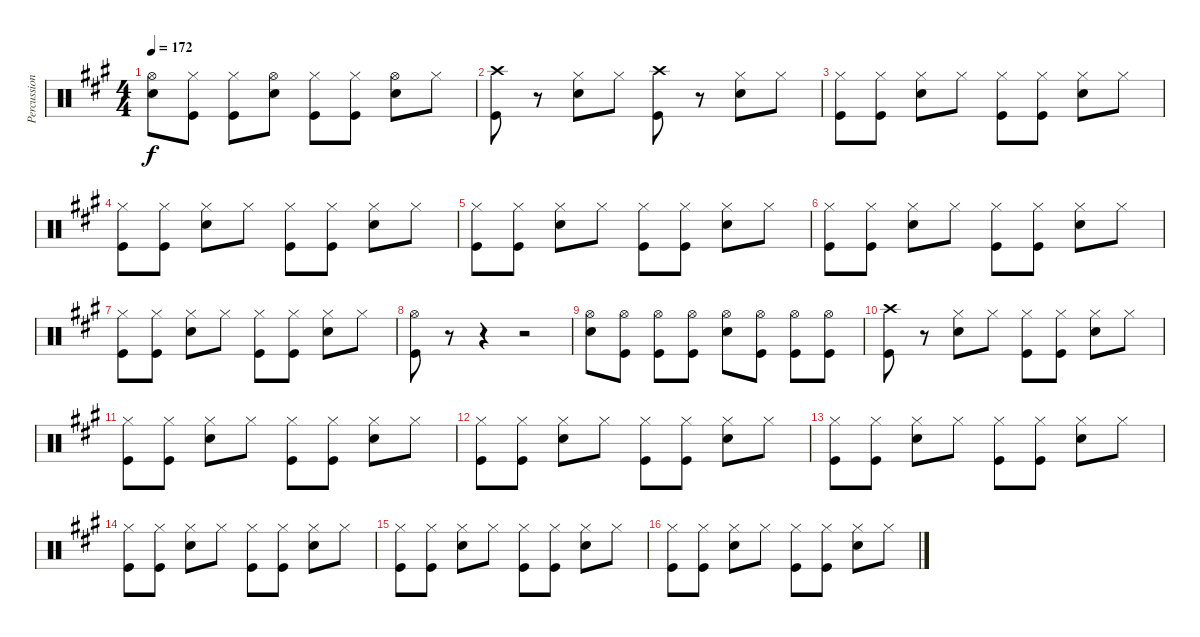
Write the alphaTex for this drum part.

\track ("Percussion" "Percussion") {instrument percussion}
\staff {score}
\articulation defaults
\ts (4 4)
\tempo 172
\clef neutral
\ks a
("Hi-Hat (open)" "Snare (hit) 2").8{dy f} ("Hi-Hat (closed)" "Kick (hit)").8 ("Hi-Hat (closed)" "Kick (hit)").8 ("Hi-Hat (open)" "Snare (hit) 2").8 ("Hi-Hat (closed)" "Kick (hit)").8 ("Hi-Hat (closed)" "Kick (hit)").8 ("Hi-Hat (open)" "Snare (hit) 2").8 "Hi-Hat (closed)".8 |
("Crash high (hit)" "Kick (hit)").8 r.8 ("Hi-Hat (closed)" "Snare (hit) 2").8 "Hi-Hat (closed)".8 ("Crash high (hit)" "Kick (hit)").8 r.8 ("Hi-Hat (closed)" "Snare (hit) 2").8 "Hi-Hat (closed)".8 |
("Hi-Hat (closed)" "Kick (hit)").8 ("Hi-Hat (closed)" "Kick (hit)").8 ("Hi-Hat (closed)" "Snare (hit) 2").8 "Hi-Hat (closed)".8 ("Hi-Hat (closed)" "Kick (hit)").8 ("Hi-Hat (closed)" "Kick (hit)").8 ("Hi-Hat (closed)" "Snare (hit) 2").8 "Hi-Hat (closed)".8 |
("Hi-Hat (closed)" "Kick (hit)").8 ("Hi-Hat (closed)" "Kick (hit)").8 ("Hi-Hat (closed)" "Snare (hit) 2").8 "Hi-Hat (closed)".8 ("Hi-Hat (closed)" "Kick (hit)").8 ("Hi-Hat (closed)" "Kick (hit)").8 ("Hi-Hat (closed)" "Snare (hit) 2").8 "Hi-Hat (closed)".8 |
("Hi-Hat (closed)" "Kick (hit)").8 ("Hi-Hat (closed)" "Kick (hit)").8 ("Hi-Hat (closed)" "Snare (hit) 2").8 "Hi-Hat (closed)".8 ("Hi-Hat (closed)" "Kick (hit)").8 ("Hi-Hat (closed)" "Kick (hit)").8 ("Hi-Hat (closed)" "Snare (hit) 2").8 "Hi-Hat (closed)".8 |
("Hi-Hat (closed)" "Kick (hit)").8 ("Hi-Hat (closed)" "Kick (hit)").8 ("Hi-Hat (closed)" "Snare (hit) 2").8 "Hi-Hat (closed)".8 ("Hi-Hat (closed)" "Kick (hit)").8 ("Hi-Hat (closed)" "Kick (hit)").8 ("Hi-Hat (closed)" "Snare (hit) 2").8 "Hi-Hat (closed)".8 |
("Hi-Hat (closed)" "Kick (hit)").8 ("Hi-Hat (closed)" "Kick (hit)").8 ("Hi-Hat (closed)" "Snare (hit) 2").8 "Hi-Hat (closed)".8 ("Hi-Hat (closed)" "Kick (hit)").8 ("Hi-Hat (closed)" "Kick (hit)").8 ("Hi-Hat (closed)" "Snare (hit) 2").8 "Hi-Hat (closed)".8 |
("Hi-Hat (open)" "Kick (hit)").8 r.8 r.4 r.2 |
("Hi-Hat (open)" "Snare (hit) 2").8 ("Hi-Hat (open)" "Kick (hit)").8 ("Hi-Hat (open)" "Kick (hit)").8 ("Hi-Hat (open)" "Kick (hit)").8 ("Hi-Hat (open)" "Snare (hit) 2").8 ("Hi-Hat (open)" "Kick (hit)").8 ("Hi-Hat (open)" "Kick (hit)").8 ("Hi-Hat (open)" "Kick (hit)").8 |
("Crash high (hit)" "Kick (hit)").8 r.8 ("Hi-Hat (closed)" "Snare (hit) 2").8 "Hi-Hat (closed)".8 ("Hi-Hat (closed)" "Kick (hit)").8 ("Hi-Hat (closed)" "Kick (hit)").8 ("Hi-Hat (closed)" "Snare (hit) 2").8 "Hi-Hat (closed)".8 |
("Hi-Hat (closed)" "Kick (hit)").8 ("Hi-Hat (closed)" "Kick (hit)").8 ("Hi-Hat (closed)" "Snare (hit) 2").8 "Hi-Hat (closed)".8 ("Hi-Hat (closed)" "Kick (hit)").8 ("Hi-Hat (closed)" "Kick (hit)").8 ("Hi-Hat (closed)" "Snare (hit) 2").8 "Hi-Hat (closed)".8 |
("Hi-Hat (closed)" "Kick (hit)").8 ("Hi-Hat (closed)" "Kick (hit)").8 ("Hi-Hat (closed)" "Snare (hit) 2").8 "Hi-Hat (closed)".8 ("Hi-Hat (closed)" "Kick (hit)").8 ("Hi-Hat (closed)" "Kick (hit)").8 ("Hi-Hat (closed)" "Snare (hit) 2").8 "Hi-Hat (closed)".8 |
("Hi-Hat (closed)" "Kick (hit)").8 ("Hi-Hat (closed)" "Kick (hit)").8 ("Hi-Hat (closed)" "Snare (hit) 2").8 "Hi-Hat (closed)".8 ("Hi-Hat (closed)" "Kick (hit)").8 ("Hi-Hat (closed)" "Kick (hit)").8 ("Hi-Hat (closed)" "Snare (hit) 2").8 "Hi-Hat (closed)".8 |
("Hi-Hat (closed)" "Kick (hit)").8 ("Hi-Hat (closed)" "Kick (hit)").8 ("Hi-Hat (closed)" "Snare (hit) 2").8 "Hi-Hat (closed)".8 ("Hi-Hat (closed)" "Kick (hit)").8 ("Hi-Hat (closed)" "Kick (hit)").8 ("Hi-Hat (closed)" "Snare (hit) 2").8 "Hi-Hat (closed)".8 |
("Hi-Hat (closed)" "Kick (hit)").8 ("Hi-Hat (closed)" "Kick (hit)").8 ("Hi-Hat (closed)" "Snare (hit) 2").8 "Hi-Hat (closed)".8 ("Hi-Hat (closed)" "Kick (hit)").8 ("Hi-Hat (closed)" "Kick (hit)").8 ("Hi-Hat (closed)" "Snare (hit) 2").8 "Hi-Hat (closed)".8 |
("Hi-Hat (closed)" "Kick (hit)").8 ("Hi-Hat (closed)" "Kick (hit)").8 ("Hi-Hat (closed)" "Snare (hit) 2").8 "Hi-Hat (closed)".8 ("Hi-Hat (closed)" "Kick (hit)").8 ("Hi-Hat (closed)" "Kick (hit)").8 ("Hi-Hat (closed)" "Snare (hit) 2").8 "Hi-Hat (closed)".8
